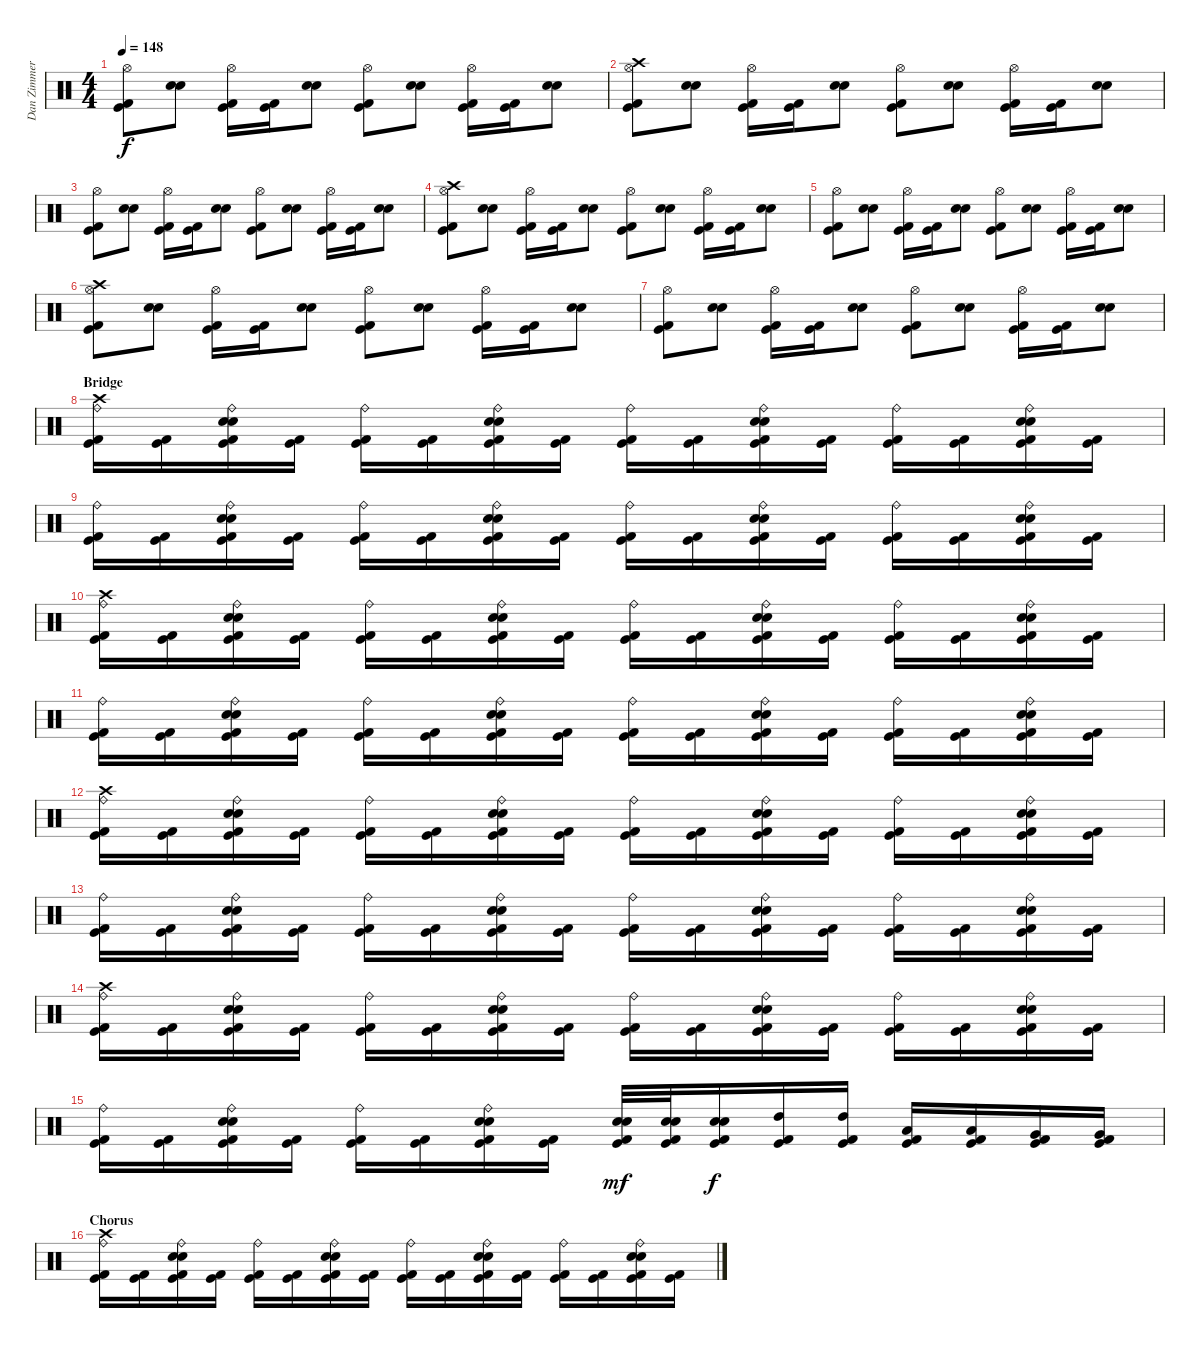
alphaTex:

\track ("Dan Zimmerman<Drum>" "Dan Zimmer") {instrument percussion}
\staff {score}
\articulation defaults
\ts (4 4)
\tempo 148
\clef neutral
\ks c
("Hi-Hat (open)" "Kick (hit) 2" "Kick (hit)").8{dy f} ("Snare (hit) 2" "Electric Snare (hit)").8 ("Hi-Hat (open)" "Kick (hit) 2" "Kick (hit)").16 ("Kick (hit) 2" "Kick (hit)").16 ("Snare (hit) 2" "Electric Snare (hit)").8 ("Hi-Hat (open)" "Kick (hit) 2" "Kick (hit)").8 ("Snare (hit) 2" "Electric Snare (hit)").8 ("Hi-Hat (open)" "Kick (hit) 2" "Kick (hit)").16 ("Kick (hit) 2" "Kick (hit)").16 ("Snare (hit) 2" "Electric Snare (hit)").8 |
("Hi-Hat (open)" "Crash high (hit)" "Kick (hit) 2" "Kick (hit)").8 ("Snare (hit) 2" "Electric Snare (hit)").8 ("Hi-Hat (open)" "Kick (hit) 2" "Kick (hit)").16 ("Kick (hit) 2" "Kick (hit)").16 ("Snare (hit) 2" "Electric Snare (hit)").8 ("Hi-Hat (open)" "Kick (hit) 2" "Kick (hit)").8 ("Snare (hit) 2" "Electric Snare (hit)").8 ("Hi-Hat (open)" "Kick (hit) 2" "Kick (hit)").16 ("Kick (hit) 2" "Kick (hit)").16 ("Snare (hit) 2" "Electric Snare (hit)").8 |
("Hi-Hat (open)" "Kick (hit) 2" "Kick (hit)").8 ("Snare (hit) 2" "Electric Snare (hit)").8 ("Hi-Hat (open)" "Kick (hit) 2" "Kick (hit)").16 ("Kick (hit) 2" "Kick (hit)").16 ("Snare (hit) 2" "Electric Snare (hit)").8 ("Hi-Hat (open)" "Kick (hit) 2" "Kick (hit)").8 ("Snare (hit) 2" "Electric Snare (hit)").8 ("Hi-Hat (open)" "Kick (hit) 2" "Kick (hit)").16 ("Kick (hit) 2" "Kick (hit)").16 ("Snare (hit) 2" "Electric Snare (hit)").8 |
("Hi-Hat (open)" "Crash high (hit)" "Kick (hit) 2" "Kick (hit)").8 ("Snare (hit) 2" "Electric Snare (hit)").8 ("Hi-Hat (open)" "Kick (hit) 2" "Kick (hit)").16 ("Kick (hit) 2" "Kick (hit)").16 ("Snare (hit) 2" "Electric Snare (hit)").8 ("Hi-Hat (open)" "Kick (hit) 2" "Kick (hit)").8 ("Snare (hit) 2" "Electric Snare (hit)").8 ("Hi-Hat (open)" "Kick (hit) 2" "Kick (hit)").16 ("Kick (hit) 2" "Kick (hit)").16 ("Snare (hit) 2" "Electric Snare (hit)").8 |
("Hi-Hat (open)" "Kick (hit) 2" "Kick (hit)").8 ("Snare (hit) 2" "Electric Snare (hit)").8 ("Hi-Hat (open)" "Kick (hit) 2" "Kick (hit)").16 ("Kick (hit) 2" "Kick (hit)").16 ("Snare (hit) 2" "Electric Snare (hit)").8 ("Hi-Hat (open)" "Kick (hit) 2" "Kick (hit)").8 ("Snare (hit) 2" "Electric Snare (hit)").8 ("Hi-Hat (open)" "Kick (hit) 2" "Kick (hit)").16 ("Kick (hit) 2" "Kick (hit)").16 ("Snare (hit) 2" "Electric Snare (hit)").8 |
("Hi-Hat (open)" "Crash high (hit)" "Kick (hit) 2" "Kick (hit)").8 ("Snare (hit) 2" "Electric Snare (hit)").8 ("Hi-Hat (open)" "Kick (hit) 2" "Kick (hit)").16 ("Kick (hit) 2" "Kick (hit)").16 ("Snare (hit) 2" "Electric Snare (hit)").8 ("Hi-Hat (open)" "Kick (hit) 2" "Kick (hit)").8 ("Snare (hit) 2" "Electric Snare (hit)").8 ("Hi-Hat (open)" "Kick (hit) 2" "Kick (hit)").16 ("Kick (hit) 2" "Kick (hit)").16 ("Snare (hit) 2" "Electric Snare (hit)").8 |
("Hi-Hat (open)" "Kick (hit) 2" "Kick (hit)").8 ("Snare (hit) 2" "Electric Snare (hit)").8 ("Hi-Hat (open)" "Kick (hit) 2" "Kick (hit)").16 ("Kick (hit) 2" "Kick (hit)").16 ("Snare (hit) 2" "Electric Snare (hit)").8 ("Hi-Hat (open)" "Kick (hit) 2" "Kick (hit)").8 ("Snare (hit) 2" "Electric Snare (hit)").8 ("Hi-Hat (open)" "Kick (hit) 2" "Kick (hit)").16 ("Kick (hit) 2" "Kick (hit)").16 ("Snare (hit) 2" "Electric Snare (hit)").8 |
\section ("" "Bridge")
("Ride (bell)" "Crash high (hit)" "Kick (hit) 2" "Kick (hit)").16 ("Kick (hit) 2" "Kick (hit)").16 ("Ride (bell)" "Snare (hit) 2" "Electric Snare (hit)" "Kick (hit) 2" "Kick (hit)").16 ("Kick (hit) 2" "Kick (hit)").16 ("Ride (bell)" "Kick (hit) 2" "Kick (hit)").16 ("Kick (hit) 2" "Kick (hit)").16 ("Ride (bell)" "Snare (hit) 2" "Electric Snare (hit)" "Kick (hit) 2" "Kick (hit)").16 ("Kick (hit) 2" "Kick (hit)").16 ("Ride (bell)" "Kick (hit) 2" "Kick (hit)").16 ("Kick (hit) 2" "Kick (hit)").16 ("Ride (bell)" "Snare (hit) 2" "Electric Snare (hit)" "Kick (hit) 2" "Kick (hit)").16 ("Kick (hit) 2" "Kick (hit)").16 ("Ride (bell)" "Kick (hit) 2" "Kick (hit)").16 ("Kick (hit) 2" "Kick (hit)").16 ("Ride (bell)" "Snare (hit) 2" "Electric Snare (hit)" "Kick (hit) 2" "Kick (hit)").16 ("Kick (hit) 2" "Kick (hit)").16 |
("Ride (bell)" "Kick (hit) 2" "Kick (hit)").16 ("Kick (hit) 2" "Kick (hit)").16 ("Ride (bell)" "Snare (hit) 2" "Electric Snare (hit)" "Kick (hit) 2" "Kick (hit)").16 ("Kick (hit) 2" "Kick (hit)").16 ("Ride (bell)" "Kick (hit) 2" "Kick (hit)").16 ("Kick (hit) 2" "Kick (hit)").16 ("Ride (bell)" "Snare (hit) 2" "Electric Snare (hit)" "Kick (hit) 2" "Kick (hit)").16 ("Kick (hit) 2" "Kick (hit)").16 ("Ride (bell)" "Kick (hit) 2" "Kick (hit)").16 ("Kick (hit) 2" "Kick (hit)").16 ("Ride (bell)" "Snare (hit) 2" "Electric Snare (hit)" "Kick (hit) 2" "Kick (hit)").16 ("Kick (hit) 2" "Kick (hit)").16 ("Ride (bell)" "Kick (hit) 2" "Kick (hit)").16 ("Kick (hit) 2" "Kick (hit)").16 ("Ride (bell)" "Snare (hit) 2" "Electric Snare (hit)" "Kick (hit) 2" "Kick (hit)").16 ("Kick (hit) 2" "Kick (hit)").16 |
("Ride (bell)" "Crash high (hit)" "Kick (hit) 2" "Kick (hit)").16 ("Kick (hit) 2" "Kick (hit)").16 ("Ride (bell)" "Snare (hit) 2" "Electric Snare (hit)" "Kick (hit) 2" "Kick (hit)").16 ("Kick (hit) 2" "Kick (hit)").16 ("Ride (bell)" "Kick (hit) 2" "Kick (hit)").16 ("Kick (hit) 2" "Kick (hit)").16 ("Ride (bell)" "Snare (hit) 2" "Electric Snare (hit)" "Kick (hit) 2" "Kick (hit)").16 ("Kick (hit) 2" "Kick (hit)").16 ("Ride (bell)" "Kick (hit) 2" "Kick (hit)").16 ("Kick (hit) 2" "Kick (hit)").16 ("Ride (bell)" "Snare (hit) 2" "Electric Snare (hit)" "Kick (hit) 2" "Kick (hit)").16 ("Kick (hit) 2" "Kick (hit)").16 ("Ride (bell)" "Kick (hit) 2" "Kick (hit)").16 ("Kick (hit) 2" "Kick (hit)").16 ("Ride (bell)" "Snare (hit) 2" "Electric Snare (hit)" "Kick (hit) 2" "Kick (hit)").16 ("Kick (hit) 2" "Kick (hit)").16 |
("Ride (bell)" "Kick (hit) 2" "Kick (hit)").16 ("Kick (hit) 2" "Kick (hit)").16 ("Ride (bell)" "Snare (hit) 2" "Electric Snare (hit)" "Kick (hit) 2" "Kick (hit)").16 ("Kick (hit) 2" "Kick (hit)").16 ("Ride (bell)" "Kick (hit) 2" "Kick (hit)").16 ("Kick (hit) 2" "Kick (hit)").16 ("Ride (bell)" "Snare (hit) 2" "Electric Snare (hit)" "Kick (hit) 2" "Kick (hit)").16 ("Kick (hit) 2" "Kick (hit)").16 ("Ride (bell)" "Kick (hit) 2" "Kick (hit)").16 ("Kick (hit) 2" "Kick (hit)").16 ("Ride (bell)" "Snare (hit) 2" "Electric Snare (hit)" "Kick (hit) 2" "Kick (hit)").16 ("Kick (hit) 2" "Kick (hit)").16 ("Ride (bell)" "Kick (hit) 2" "Kick (hit)").16 ("Kick (hit) 2" "Kick (hit)").16 ("Ride (bell)" "Snare (hit) 2" "Electric Snare (hit)" "Kick (hit) 2" "Kick (hit)").16 ("Kick (hit) 2" "Kick (hit)").16 |
("Ride (bell)" "Crash high (hit)" "Kick (hit) 2" "Kick (hit)").16 ("Kick (hit) 2" "Kick (hit)").16 ("Ride (bell)" "Snare (hit) 2" "Electric Snare (hit)" "Kick (hit) 2" "Kick (hit)").16 ("Kick (hit) 2" "Kick (hit)").16 ("Ride (bell)" "Kick (hit) 2" "Kick (hit)").16 ("Kick (hit) 2" "Kick (hit)").16 ("Ride (bell)" "Snare (hit) 2" "Electric Snare (hit)" "Kick (hit) 2" "Kick (hit)").16 ("Kick (hit) 2" "Kick (hit)").16 ("Ride (bell)" "Kick (hit) 2" "Kick (hit)").16 ("Kick (hit) 2" "Kick (hit)").16 ("Ride (bell)" "Snare (hit) 2" "Electric Snare (hit)" "Kick (hit) 2" "Kick (hit)").16 ("Kick (hit) 2" "Kick (hit)").16 ("Ride (bell)" "Kick (hit) 2" "Kick (hit)").16 ("Kick (hit) 2" "Kick (hit)").16 ("Ride (bell)" "Snare (hit) 2" "Electric Snare (hit)" "Kick (hit) 2" "Kick (hit)").16 ("Kick (hit) 2" "Kick (hit)").16 |
("Ride (bell)" "Kick (hit) 2" "Kick (hit)").16 ("Kick (hit) 2" "Kick (hit)").16 ("Ride (bell)" "Snare (hit) 2" "Electric Snare (hit)" "Kick (hit) 2" "Kick (hit)").16 ("Kick (hit) 2" "Kick (hit)").16 ("Ride (bell)" "Kick (hit) 2" "Kick (hit)").16 ("Kick (hit) 2" "Kick (hit)").16 ("Ride (bell)" "Snare (hit) 2" "Electric Snare (hit)" "Kick (hit) 2" "Kick (hit)").16 ("Kick (hit) 2" "Kick (hit)").16 ("Ride (bell)" "Kick (hit) 2" "Kick (hit)").16 ("Kick (hit) 2" "Kick (hit)").16 ("Ride (bell)" "Snare (hit) 2" "Electric Snare (hit)" "Kick (hit) 2" "Kick (hit)").16 ("Kick (hit) 2" "Kick (hit)").16 ("Ride (bell)" "Kick (hit) 2" "Kick (hit)").16 ("Kick (hit) 2" "Kick (hit)").16 ("Ride (bell)" "Snare (hit) 2" "Electric Snare (hit)" "Kick (hit) 2" "Kick (hit)").16 ("Kick (hit) 2" "Kick (hit)").16 |
("Ride (bell)" "Crash high (hit)" "Kick (hit) 2" "Kick (hit)").16 ("Kick (hit) 2" "Kick (hit)").16 ("Ride (bell)" "Snare (hit) 2" "Electric Snare (hit)" "Kick (hit) 2" "Kick (hit)").16 ("Kick (hit) 2" "Kick (hit)").16 ("Ride (bell)" "Kick (hit) 2" "Kick (hit)").16 ("Kick (hit) 2" "Kick (hit)").16 ("Ride (bell)" "Snare (hit) 2" "Electric Snare (hit)" "Kick (hit) 2" "Kick (hit)").16 ("Kick (hit) 2" "Kick (hit)").16 ("Ride (bell)" "Kick (hit) 2" "Kick (hit)").16 ("Kick (hit) 2" "Kick (hit)").16 ("Ride (bell)" "Snare (hit) 2" "Electric Snare (hit)" "Kick (hit) 2" "Kick (hit)").16 ("Kick (hit) 2" "Kick (hit)").16 ("Ride (bell)" "Kick (hit) 2" "Kick (hit)").16 ("Kick (hit) 2" "Kick (hit)").16 ("Ride (bell)" "Snare (hit) 2" "Electric Snare (hit)" "Kick (hit) 2" "Kick (hit)").16 ("Kick (hit) 2" "Kick (hit)").16 |
("Ride (bell)" "Kick (hit) 2" "Kick (hit)").16 ("Kick (hit) 2" "Kick (hit)").16 ("Ride (bell)" "Snare (hit) 2" "Electric Snare (hit)" "Kick (hit) 2" "Kick (hit)").16 ("Kick (hit) 2" "Kick (hit)").16 ("Ride (bell)" "Kick (hit) 2" "Kick (hit)").16 ("Kick (hit) 2" "Kick (hit)").16 ("Ride (bell)" "Snare (hit) 2" "Electric Snare (hit)" "Kick (hit) 2" "Kick (hit)").16 ("Kick (hit) 2" "Kick (hit)").16 ("Snare (hit) 2" "Electric Snare (hit)" "Kick (hit) 2" "Kick (hit)").32{dy mf} ("Snare (hit) 2" "Electric Snare (hit)" "Kick (hit) 2" "Kick (hit)").32 ("Electric Snare (hit)" "Snare (hit) 2" "Kick (hit) 2" "Kick (hit)").16{dy f} ("High Tom (hit)" "Kick (hit) 2" "Kick (hit)").16 ("High Tom (hit)" "Kick (hit) 2" "Kick (hit)").16 ("Low Tom (hit)" "Kick (hit) 2" "Kick (hit)").16 ("Low Tom (hit)" "Kick (hit) 2" "Kick (hit)").16 ("Very Low Tom (hit)" "Kick (hit) 2" "Kick (hit)").16 ("Very Low Tom (hit)" "Kick (hit) 2" "Kick (hit)").16 |
\section ("" "Chorus")
("Ride (bell)" "Crash high (hit)" "Kick (hit) 2" "Kick (hit)").16 ("Kick (hit) 2" "Kick (hit)").16 ("Ride (bell)" "Snare (hit) 2" "Electric Snare (hit)" "Kick (hit) 2" "Kick (hit)").16 ("Kick (hit) 2" "Kick (hit)").16 ("Ride (bell)" "Kick (hit) 2" "Kick (hit)").16 ("Kick (hit) 2" "Kick (hit)").16 ("Ride (bell)" "Snare (hit) 2" "Electric Snare (hit)" "Kick (hit) 2" "Kick (hit)").16 ("Kick (hit) 2" "Kick (hit)").16 ("Ride (bell)" "Kick (hit) 2" "Kick (hit)").16 ("Kick (hit) 2" "Kick (hit)").16 ("Ride (bell)" "Snare (hit) 2" "Electric Snare (hit)" "Kick (hit) 2" "Kick (hit)").16 ("Kick (hit) 2" "Kick (hit)").16 ("Ride (bell)" "Kick (hit) 2" "Kick (hit)").16 ("Kick (hit) 2" "Kick (hit)").16 ("Ride (bell)" "Snare (hit) 2" "Electric Snare (hit)" "Kick (hit) 2" "Kick (hit)").16 ("Kick (hit) 2" "Kick (hit)").16
